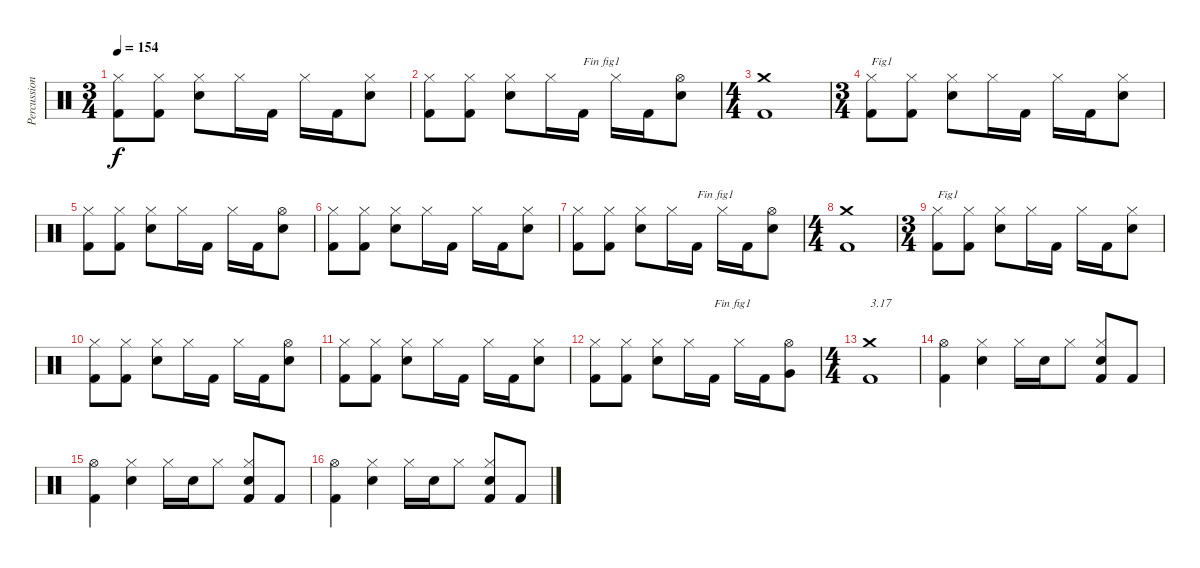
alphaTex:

\track ("Percussions" "Percussion") {instrument percussion}
\staff {score}
\articulation defaults
\ts (3 4)
\tempo 154
\clef neutral
\ks c
("Kick (hit) 2" "Hi-Hat (closed)").8{dy f} ("Kick (hit) 2" "Hi-Hat (closed)").8 ("Electric Snare (hit)" "Hi-Hat (closed)").8 "Hi-Hat (closed)".16 "Kick (hit) 2".16 "Hi-Hat (closed)".16 "Kick (hit) 2".16 ("Electric Snare (hit)" "Hi-Hat (closed)").8 |
("Kick (hit) 2" "Hi-Hat (closed)").8 ("Kick (hit) 2" "Hi-Hat (closed)").8 ("Electric Snare (hit)" "Hi-Hat (closed)").8 "Hi-Hat (closed)".16 "Kick (hit) 2".16{txt "Fin fig1"} "Hi-Hat (closed)".16 "Kick (hit) 2".16 ("Electric Snare (hit)" "Hi-Hat (open)").8 |
\ts (4 4)
("Kick (hit) 2" "Crash medium (hit)").1 |
\ts (3 4)
("Kick (hit) 2" "Hi-Hat (closed)").8{txt "Fig1"} ("Kick (hit) 2" "Hi-Hat (closed)").8 ("Electric Snare (hit)" "Hi-Hat (closed)").8 "Hi-Hat (closed)".16 "Kick (hit) 2".16 "Hi-Hat (closed)".16 "Kick (hit) 2".16 ("Electric Snare (hit)" "Hi-Hat (closed)").8 |
("Kick (hit) 2" "Hi-Hat (closed)").8 ("Kick (hit) 2" "Hi-Hat (closed)").8 ("Electric Snare (hit)" "Hi-Hat (closed)").8 "Hi-Hat (closed)".16 "Kick (hit) 2".16 "Hi-Hat (closed)".16 "Kick (hit) 2".16 ("Electric Snare (hit)" "Hi-Hat (open)").8 |
("Kick (hit) 2" "Hi-Hat (closed)").8 ("Kick (hit) 2" "Hi-Hat (closed)").8 ("Electric Snare (hit)" "Hi-Hat (closed)").8 "Hi-Hat (closed)".16 "Kick (hit) 2".16 "Hi-Hat (closed)".16 "Kick (hit) 2".16 ("Electric Snare (hit)" "Hi-Hat (closed)").8 |
("Kick (hit) 2" "Hi-Hat (closed)").8 ("Kick (hit) 2" "Hi-Hat (closed)").8 ("Electric Snare (hit)" "Hi-Hat (closed)").8 "Hi-Hat (closed)".16 "Kick (hit) 2".16{txt "Fin fig1"} "Hi-Hat (closed)".16 "Kick (hit) 2".16 ("Electric Snare (hit)" "Hi-Hat (open)").8 |
\ts (4 4)
("Kick (hit) 2" "Crash medium (hit)").1 |
\ts (3 4)
("Kick (hit) 2" "Hi-Hat (closed)").8{txt "Fig1"} ("Kick (hit) 2" "Hi-Hat (closed)").8 ("Electric Snare (hit)" "Hi-Hat (closed)").8 "Hi-Hat (closed)".16 "Kick (hit) 2".16 "Hi-Hat (closed)".16 "Kick (hit) 2".16 ("Electric Snare (hit)" "Hi-Hat (closed)").8 |
("Kick (hit) 2" "Hi-Hat (closed)").8 ("Kick (hit) 2" "Hi-Hat (closed)").8 ("Electric Snare (hit)" "Hi-Hat (closed)").8 "Hi-Hat (closed)".16 "Kick (hit) 2".16 "Hi-Hat (closed)".16 "Kick (hit) 2".16 ("Electric Snare (hit)" "Hi-Hat (open)").8 |
("Kick (hit) 2" "Hi-Hat (closed)").8 ("Kick (hit) 2" "Hi-Hat (closed)").8 ("Electric Snare (hit)" "Hi-Hat (closed)").8 "Hi-Hat (closed)".16 "Kick (hit) 2".16 "Hi-Hat (closed)".16 "Kick (hit) 2".16 ("Electric Snare (hit)" "Hi-Hat (closed)").8 |
("Kick (hit) 2" "Hi-Hat (closed)").8 ("Kick (hit) 2" "Hi-Hat (closed)").8 ("Electric Snare (hit)" "Hi-Hat (closed)").8 "Hi-Hat (closed)".16 "Kick (hit) 2".16{txt "Fin fig1"} "Hi-Hat (closed)".16 "Kick (hit) 2".16 ("Very Low Tom (hit)" "Hi-Hat (open)").8 |
\ts (4 4)
("Kick (hit) 2" "Crash medium (hit)").1{txt "3.17"} |
("Kick (hit) 2" "Hi-Hat (open)").4 ("Electric Snare (hit)" "Hi-Hat (closed)").4 "Hi-Hat (closed)".16 "Electric Snare (hit)".16 "Hi-Hat (closed)".8 ("Kick (hit) 2" "Electric Snare (hit)" "Hi-Hat (closed)").8 "Kick (hit) 2".8 |
("Kick (hit) 2" "Hi-Hat (open)").4 ("Electric Snare (hit)" "Hi-Hat (closed)").4 "Hi-Hat (closed)".16 "Electric Snare (hit)".16 "Hi-Hat (closed)".8 ("Kick (hit) 2" "Electric Snare (hit)" "Hi-Hat (closed)").8 "Kick (hit) 2".8 |
("Kick (hit) 2" "Hi-Hat (open)").4 ("Electric Snare (hit)" "Hi-Hat (closed)").4 "Hi-Hat (closed)".16 "Electric Snare (hit)".16 "Hi-Hat (closed)".8 ("Kick (hit) 2" "Electric Snare (hit)" "Hi-Hat (closed)").8 "Kick (hit) 2".8
